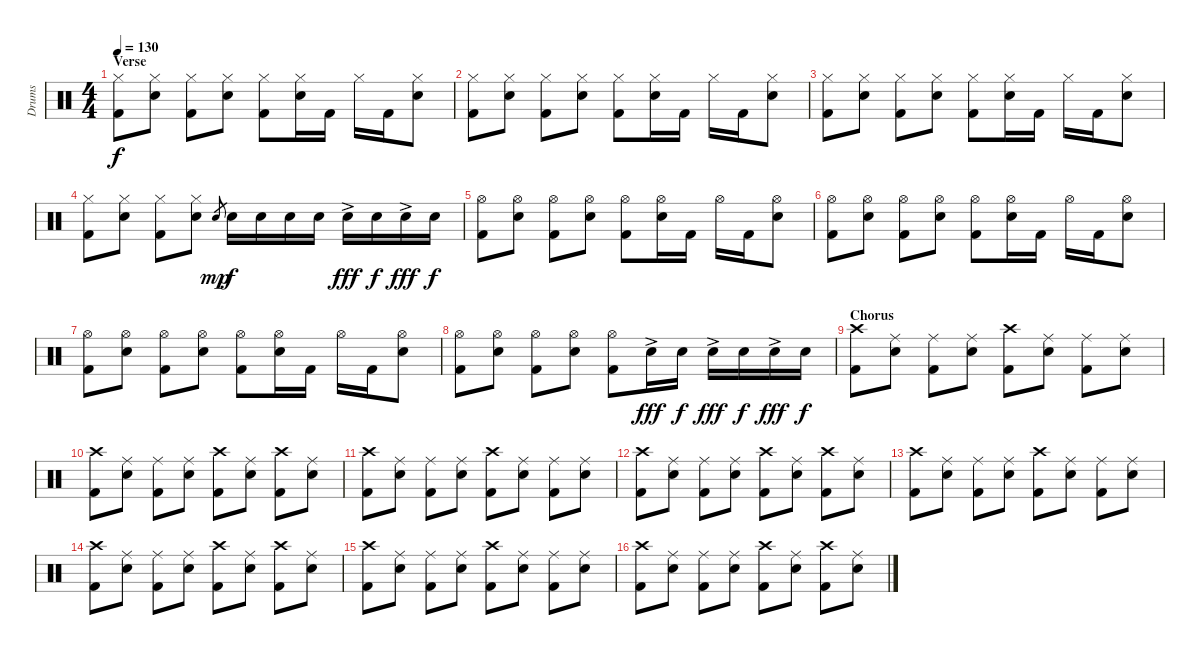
\track ("Drums" "Drums") {instrument percussion}
\staff {score}
\articulation defaults
\ts (4 4)
\section ("" "Verse")
\tempo 130
\clef neutral
\ks c
("Hi-Hat (closed)" "Kick (hit) 2").8{dy f} ("Hi-Hat (closed)" "Snare (hit) 2").8 ("Hi-Hat (closed)" "Kick (hit) 2").8 ("Hi-Hat (closed)" "Snare (hit) 2").8 ("Hi-Hat (closed)" "Kick (hit) 2").8 ("Hi-Hat (closed)" "Snare (hit) 2").16 "Kick (hit) 2".16 "Hi-Hat (closed)".16 "Kick (hit) 2".16 ("Hi-Hat (closed)" "Snare (hit) 2").8 |
("Hi-Hat (closed)" "Kick (hit) 2").8 ("Hi-Hat (closed)" "Snare (hit) 2").8 ("Hi-Hat (closed)" "Kick (hit) 2").8 ("Hi-Hat (closed)" "Snare (hit) 2").8 ("Hi-Hat (closed)" "Kick (hit) 2").8 ("Hi-Hat (closed)" "Snare (hit) 2").16 "Kick (hit) 2".16 "Hi-Hat (closed)".16 "Kick (hit) 2".16 ("Hi-Hat (closed)" "Snare (hit) 2").8 |
("Hi-Hat (closed)" "Kick (hit) 2").8 ("Hi-Hat (closed)" "Snare (hit) 2").8 ("Hi-Hat (closed)" "Kick (hit) 2").8 ("Hi-Hat (closed)" "Snare (hit) 2").8 ("Hi-Hat (closed)" "Kick (hit) 2").8 ("Hi-Hat (closed)" "Snare (hit) 2").16 "Kick (hit) 2".16 "Hi-Hat (closed)".16 "Kick (hit) 2".16 ("Hi-Hat (closed)" "Snare (hit) 2").8 |
("Hi-Hat (closed)" "Kick (hit) 2").8 ("Hi-Hat (closed)" "Snare (hit) 2").8 ("Hi-Hat (closed)" "Kick (hit) 2").8 ("Hi-Hat (closed)" "Snare (hit) 2").8 "Snare (hit) 2".8{gr dy mp} "Snare (hit) 2".16{dy f} "Snare (hit) 2".16 "Snare (hit) 2".16 "Snare (hit) 2".16 "Snare (hit) 2"{ac}.16{dy fff} "Snare (hit) 2".16{dy f} "Snare (hit) 2"{ac}.16{dy fff} "Snare (hit) 2".16{dy f} |
("Hi-Hat (open)" "Kick (hit) 2").8 ("Hi-Hat (open)" "Snare (hit) 2").8 ("Hi-Hat (open)" "Kick (hit) 2").8 ("Hi-Hat (open)" "Snare (hit) 2").8 ("Hi-Hat (open)" "Kick (hit) 2").8 ("Hi-Hat (open)" "Snare (hit) 2").16 "Kick (hit) 2".16 "Hi-Hat (open)".16 "Kick (hit) 2".16 ("Hi-Hat (open)" "Snare (hit) 2").8 |
("Hi-Hat (open)" "Kick (hit) 2").8 ("Hi-Hat (open)" "Snare (hit) 2").8 ("Hi-Hat (open)" "Kick (hit) 2").8 ("Hi-Hat (open)" "Snare (hit) 2").8 ("Hi-Hat (open)" "Kick (hit) 2").8 ("Hi-Hat (open)" "Snare (hit) 2").16 "Kick (hit) 2".16 "Hi-Hat (open)".16 "Kick (hit) 2".16 ("Hi-Hat (open)" "Snare (hit) 2").8 |
("Hi-Hat (open)" "Kick (hit) 2").8 ("Hi-Hat (open)" "Snare (hit) 2").8 ("Hi-Hat (open)" "Kick (hit) 2").8 ("Hi-Hat (open)" "Snare (hit) 2").8 ("Hi-Hat (open)" "Kick (hit) 2").8 ("Hi-Hat (open)" "Snare (hit) 2").16 "Kick (hit) 2".16 "Hi-Hat (open)".16 "Kick (hit) 2".16 ("Hi-Hat (open)" "Snare (hit) 2").8 |
("Hi-Hat (open)" "Kick (hit) 2").8 ("Hi-Hat (open)" "Snare (hit) 2").8 ("Hi-Hat (open)" "Kick (hit) 2").8 ("Hi-Hat (open)" "Snare (hit) 2").8 ("Hi-Hat (open)" "Kick (hit) 2").8 "Snare (hit) 2"{ac}.16{dy fff} "Snare (hit) 2".16{dy f} "Snare (hit) 2"{ac}.16{dy fff} "Snare (hit) 2".16{dy f} "Snare (hit) 2"{ac}.16{dy fff} "Snare (hit) 2".16{dy f} |
\section ("" "Chorus")
("Crash high (hit)" "Kick (hit) 2").8 ("Ride (middle)" "Snare (hit) 2").8 ("Ride (middle)" "Kick (hit) 2").8 ("Ride (middle)" "Snare (hit) 2").8 ("Crash high (hit)" "Kick (hit) 2").8 ("Ride (middle)" "Snare (hit) 2").8 ("Ride (middle)" "Kick (hit) 2").8 ("Ride (middle)" "Snare (hit) 2").8 |
("Crash high (hit)" "Kick (hit) 2").8 ("Ride (middle)" "Snare (hit) 2").8 ("Ride (middle)" "Kick (hit) 2").8 ("Ride (middle)" "Snare (hit) 2").8 ("Crash high (hit)" "Kick (hit) 2").8 ("Ride (middle)" "Snare (hit) 2").8 ("Crash high (hit)" "Kick (hit) 2").8 ("Ride (middle)" "Snare (hit) 2").8 |
("Crash high (hit)" "Kick (hit) 2").8 ("Ride (middle)" "Snare (hit) 2").8 ("Ride (middle)" "Kick (hit) 2").8 ("Ride (middle)" "Snare (hit) 2").8 ("Crash high (hit)" "Kick (hit) 2").8 ("Ride (middle)" "Snare (hit) 2").8 ("Ride (middle)" "Kick (hit) 2").8 ("Ride (middle)" "Snare (hit) 2").8 |
("Crash high (hit)" "Kick (hit) 2").8 ("Ride (middle)" "Snare (hit) 2").8 ("Ride (middle)" "Kick (hit) 2").8 ("Ride (middle)" "Snare (hit) 2").8 ("Crash high (hit)" "Kick (hit) 2").8 ("Ride (middle)" "Snare (hit) 2").8 ("Crash high (hit)" "Kick (hit) 2").8 ("Ride (middle)" "Snare (hit) 2").8 |
("Crash high (hit)" "Kick (hit) 2").8 ("Ride (middle)" "Snare (hit) 2").8 ("Ride (middle)" "Kick (hit) 2").8 ("Ride (middle)" "Snare (hit) 2").8 ("Crash high (hit)" "Kick (hit) 2").8 ("Ride (middle)" "Snare (hit) 2").8 ("Ride (middle)" "Kick (hit) 2").8 ("Ride (middle)" "Snare (hit) 2").8 |
("Crash high (hit)" "Kick (hit) 2").8 ("Ride (middle)" "Snare (hit) 2").8 ("Ride (middle)" "Kick (hit) 2").8 ("Ride (middle)" "Snare (hit) 2").8 ("Crash high (hit)" "Kick (hit) 2").8 ("Ride (middle)" "Snare (hit) 2").8 ("Crash high (hit)" "Kick (hit) 2").8 ("Ride (middle)" "Snare (hit) 2").8 |
("Crash high (hit)" "Kick (hit) 2").8 ("Ride (middle)" "Snare (hit) 2").8 ("Ride (middle)" "Kick (hit) 2").8 ("Ride (middle)" "Snare (hit) 2").8 ("Crash high (hit)" "Kick (hit) 2").8 ("Ride (middle)" "Snare (hit) 2").8 ("Ride (middle)" "Kick (hit) 2").8 ("Ride (middle)" "Snare (hit) 2").8 |
("Crash high (hit)" "Kick (hit) 2").8 ("Ride (middle)" "Snare (hit) 2").8 ("Ride (middle)" "Kick (hit) 2").8 ("Ride (middle)" "Snare (hit) 2").8 ("Crash high (hit)" "Kick (hit) 2").8 ("Ride (middle)" "Snare (hit) 2").8 ("Crash high (hit)" "Kick (hit) 2").8 ("Ride (middle)" "Snare (hit) 2").8
